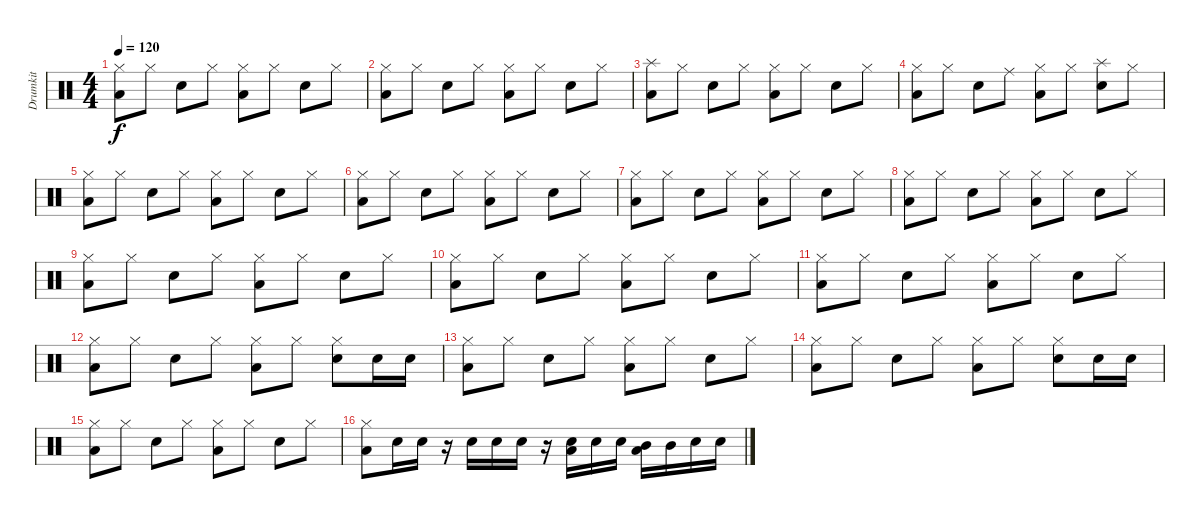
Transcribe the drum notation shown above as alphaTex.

\track ("Drumkit" "Drumkit") {instrument percussion}
\staff {score}
\articulation defaults
\ts (4 4)
\tempo 120
\clef neutral
\ks c
("Hi-Hat (closed)" "Low Floor Tom (hit)").8{dy f} "Hi-Hat (closed)".8 "Snare (hit) 2".8 "Hi-Hat (closed)".8 ("Hi-Hat (closed)" "Low Floor Tom (hit)").8 "Hi-Hat (closed)".8 "Snare (hit) 2".8 "Hi-Hat (closed)".8 |
("Hi-Hat (closed)" "Low Floor Tom (hit)").8 "Hi-Hat (closed)".8 "Snare (hit) 2".8 "Hi-Hat (closed)".8 ("Hi-Hat (closed)" "Low Floor Tom (hit)").8 "Hi-Hat (closed)".8 "Snare (hit) 2".8 "Hi-Hat (closed)".8 |
("Low Floor Tom (hit)" "Splash (hit)").8 "Hi-Hat (closed)".8 "Snare (hit) 2".8 "Hi-Hat (closed)".8 ("Hi-Hat (closed)" "Low Floor Tom (hit)").8 "Hi-Hat (closed)".8 "Snare (hit) 2".8 "Hi-Hat (closed)".8 |
("Hi-Hat (closed)" "Low Floor Tom (hit)").8 "Hi-Hat (closed)".8 "Snare (hit) 2".8 "Ride (middle)".8 ("Hi-Hat (closed)" "Low Floor Tom (hit)").8 "Hi-Hat (closed)".8 ("Snare (hit) 2" "Splash (hit)").8 "Hi-Hat (closed)".8 |
("Hi-Hat (closed)" "Low Floor Tom (hit)").8 "Hi-Hat (closed)".8 "Snare (hit) 2".8 "Hi-Hat (closed)".8 ("Hi-Hat (closed)" "Low Floor Tom (hit)").8 "Hi-Hat (closed)".8 "Snare (hit) 2".8 "Hi-Hat (closed)".8 |
("Hi-Hat (closed)" "Low Floor Tom (hit)").8 "Hi-Hat (closed)".8 "Snare (hit) 2".8 "Hi-Hat (closed)".8 ("Hi-Hat (closed)" "Low Floor Tom (hit)").8 "Hi-Hat (closed)".8 "Snare (hit) 2".8 "Hi-Hat (closed)".8 |
("Hi-Hat (closed)" "Low Floor Tom (hit)").8 "Hi-Hat (closed)".8 "Snare (hit) 2".8 "Hi-Hat (closed)".8 ("Hi-Hat (closed)" "Low Floor Tom (hit)").8 "Hi-Hat (closed)".8 "Snare (hit) 2".8 "Hi-Hat (closed)".8 |
("Hi-Hat (closed)" "Low Floor Tom (hit)").8 "Hi-Hat (closed)".8 "Snare (hit) 2".8 "Hi-Hat (closed)".8 ("Hi-Hat (closed)" "Low Floor Tom (hit)").8 "Hi-Hat (closed)".8 "Snare (hit) 2".8 "Hi-Hat (closed)".8 |
("Hi-Hat (closed)" "Low Floor Tom (hit)").8 "Hi-Hat (closed)".8 "Snare (hit) 2".8 "Hi-Hat (closed)".8 ("Hi-Hat (closed)" "Low Floor Tom (hit)").8 "Hi-Hat (closed)".8 "Snare (hit) 2".8 "Hi-Hat (closed)".8 |
("Hi-Hat (closed)" "Low Floor Tom (hit)").8 "Hi-Hat (closed)".8 "Snare (hit) 2".8 "Hi-Hat (closed)".8 ("Hi-Hat (closed)" "Low Floor Tom (hit)").8 "Hi-Hat (closed)".8 "Snare (hit) 2".8 "Hi-Hat (closed)".8 |
("Hi-Hat (closed)" "Low Floor Tom (hit)").8 "Hi-Hat (closed)".8 "Snare (hit) 2".8 "Hi-Hat (closed)".8 ("Hi-Hat (closed)" "Low Floor Tom (hit)").8 "Hi-Hat (closed)".8 "Snare (hit) 2".8 "Hi-Hat (closed)".8 |
("Hi-Hat (closed)" "Low Floor Tom (hit)").8 "Hi-Hat (closed)".8 "Snare (hit) 2".8 "Hi-Hat (closed)".8 ("Hi-Hat (closed)" "Low Floor Tom (hit)").8 "Hi-Hat (closed)".8 ("Snare (hit) 2" "Hi-Hat (closed)").8 "Snare (hit) 2".16 "Snare (hit) 2".16 |
("Hi-Hat (closed)" "Low Floor Tom (hit)").8 "Hi-Hat (closed)".8 "Snare (hit) 2".8 "Hi-Hat (closed)".8 ("Hi-Hat (closed)" "Low Floor Tom (hit)").8 "Hi-Hat (closed)".8 "Snare (hit) 2".8 "Hi-Hat (closed)".8 |
("Hi-Hat (closed)" "Low Floor Tom (hit)").8 "Hi-Hat (closed)".8 "Snare (hit) 2".8 "Hi-Hat (closed)".8 ("Hi-Hat (closed)" "Low Floor Tom (hit)").8 "Hi-Hat (closed)".8 ("Snare (hit) 2" "Hi-Hat (closed)").8 "Snare (hit) 2".16 "Snare (hit) 2".16 |
("Hi-Hat (closed)" "Low Floor Tom (hit)").8 "Hi-Hat (closed)".8 "Snare (hit) 2".8 "Hi-Hat (closed)".8 ("Hi-Hat (closed)" "Low Floor Tom (hit)").8 "Hi-Hat (closed)".8 "Snare (hit) 2".8 "Hi-Hat (closed)".8 |
("Hi-Hat (closed)" "Low Floor Tom (hit)").8 "Snare (hit) 2".16 "Snare (hit) 2".16 r.16 "Snare (hit) 2".16 "Snare (hit) 2".16 "Snare (hit) 2".16 r.16 ("Snare (hit) 2" "Low Floor Tom (hit)").16 "Snare (hit) 2".16 "Snare (hit) 2".16 ("Mid Tom (hit)" "Low Floor Tom (hit)").16 "Mid Tom (hit)".16 "Snare (hit) 2".16 "Snare (hit) 2".16
